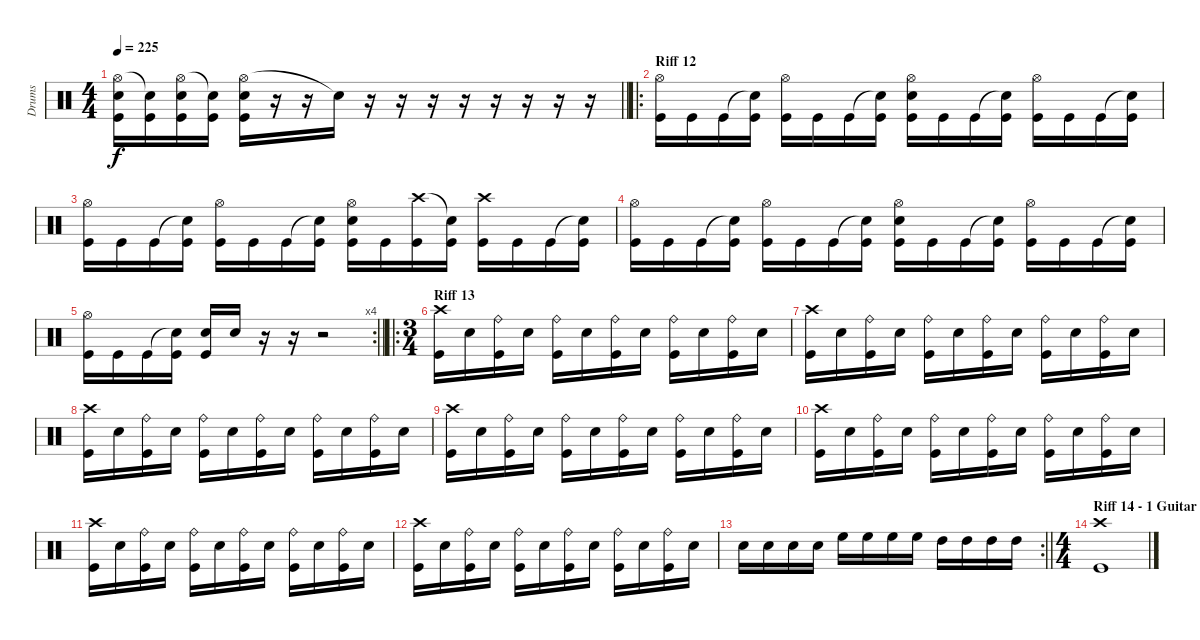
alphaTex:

\track ("Drums" "Drums") {instrument percussion}
\staff {score}
\articulation defaults
\ts (4 4)
\tempo 225
\clef neutral
\barLineRight lightlight
\ks c
("Hi-Hat (open)" "Electric Snare (hit)" "Kick (hit)").16{dy f} ("Snare (hit)"{t} "Kick (hit)").16 ("Hi-Hat (open)" "Electric Snare (hit)" "Kick (hit)").16 ("Snare (hit)"{t} "Kick (hit)").16 ("Hi-Hat (open)" "Electric Snare (hit)" "Kick (hit)").16 r.16 r.16 "Snare (hit)"{t}.16 r.16 r.16 r.16 r.16 r.16 r.16 r.16 r.16 |
\ro
\section ("" "Riff 12")
("Hi-Hat (open)" "Kick (hit)").16 "Kick (hit)".16 "Kick (hit)".16 ("Snare (hit)"{t} "Kick (hit)").16 ("Hi-Hat (open)" "Kick (hit)").16 "Kick (hit)".16 "Kick (hit)".16 ("Snare (hit)"{t} "Kick (hit)").16 ("Hi-Hat (open)" "Electric Snare (hit)" "Kick (hit)").16 "Kick (hit)".16 "Kick (hit)".16 ("Snare (hit)"{t} "Kick (hit)").16 ("Hi-Hat (open)" "Kick (hit)").16 "Kick (hit)".16 "Kick (hit)".16 ("Snare (hit)"{t} "Kick (hit)").16 |
("Hi-Hat (open)" "Kick (hit)").16 "Kick (hit)".16 "Kick (hit)".16 ("Snare (hit)"{t} "Kick (hit)").16 ("Hi-Hat (open)" "Kick (hit)").16 "Kick (hit)".16 "Kick (hit)".16 ("Snare (hit)"{t} "Kick (hit)").16 ("Hi-Hat (open)" "Electric Snare (hit)" "Kick (hit)").16 "Kick (hit)".16 ("Crash high (hit)" "Kick (hit)").16 ("Snare (hit)"{t} "Kick (hit)").16 ("Crash high (hit)" "Kick (hit)").16 "Kick (hit)".16 "Kick (hit)".16 ("Snare (hit)"{t} "Kick (hit)").16 |
("Hi-Hat (open)" "Kick (hit)").16 "Kick (hit)".16 "Kick (hit)".16 ("Snare (hit)"{t} "Kick (hit)").16 ("Hi-Hat (open)" "Kick (hit)").16 "Kick (hit)".16 "Kick (hit)".16 ("Snare (hit)"{t} "Kick (hit)").16 ("Hi-Hat (open)" "Electric Snare (hit)" "Kick (hit)").16 "Kick (hit)".16 "Kick (hit)".16 ("Snare (hit)"{t} "Kick (hit)").16 ("Hi-Hat (open)" "Kick (hit)").16 "Kick (hit)".16 "Kick (hit)".16 ("Snare (hit)"{t} "Kick (hit)").16 |
\rc 4
\barLineRight lightlight
("Hi-Hat (open)" "Kick (hit)").16 "Kick (hit)".16 "Kick (hit)".16 ("Snare (hit)"{t} "Kick (hit)").16 ("Electric Snare (hit)" "Kick (hit)").16 "Electric Snare (hit)".16 r.16 r.16 r.2 |
\ro
\ts (3 4)
\section ("" "Riff 13")
("Crash high (hit)" "Kick (hit)").16 "Electric Snare (hit)".16 ("Ride (bell)" "Kick (hit)").16 "Electric Snare (hit)".16 ("Ride (bell)" "Kick (hit)").16 "Electric Snare (hit)".16 ("Ride (bell)" "Kick (hit)").16 "Electric Snare (hit)".16 ("Ride (bell)" "Kick (hit)").16 "Electric Snare (hit)".16 ("Ride (bell)" "Kick (hit)").16 "Electric Snare (hit)".16 |
("Crash high (hit)" "Kick (hit)").16 "Electric Snare (hit)".16 ("Ride (bell)" "Kick (hit)").16 "Electric Snare (hit)".16 ("Ride (bell)" "Kick (hit)").16 "Electric Snare (hit)".16 ("Ride (bell)" "Kick (hit)").16 "Electric Snare (hit)".16 ("Ride (bell)" "Kick (hit)").16 "Electric Snare (hit)".16 ("Ride (bell)" "Kick (hit)").16 "Electric Snare (hit)".16 |
("Crash high (hit)" "Kick (hit)").16 "Electric Snare (hit)".16 ("Ride (bell)" "Kick (hit)").16 "Electric Snare (hit)".16 ("Ride (bell)" "Kick (hit)").16 "Electric Snare (hit)".16 ("Ride (bell)" "Kick (hit)").16 "Electric Snare (hit)".16 ("Ride (bell)" "Kick (hit)").16 "Electric Snare (hit)".16 ("Ride (bell)" "Kick (hit)").16 "Electric Snare (hit)".16 |
("Crash high (hit)" "Kick (hit)").16 "Electric Snare (hit)".16 ("Ride (bell)" "Kick (hit)").16 "Electric Snare (hit)".16 ("Ride (bell)" "Kick (hit)").16 "Electric Snare (hit)".16 ("Ride (bell)" "Kick (hit)").16 "Electric Snare (hit)".16 ("Ride (bell)" "Kick (hit)").16 "Electric Snare (hit)".16 ("Ride (bell)" "Kick (hit)").16 "Electric Snare (hit)".16 |
("Crash high (hit)" "Kick (hit)").16 "Electric Snare (hit)".16 ("Ride (bell)" "Kick (hit)").16 "Electric Snare (hit)".16 ("Ride (bell)" "Kick (hit)").16 "Electric Snare (hit)".16 ("Ride (bell)" "Kick (hit)").16 "Electric Snare (hit)".16 ("Ride (bell)" "Kick (hit)").16 "Electric Snare (hit)".16 ("Ride (bell)" "Kick (hit)").16 "Electric Snare (hit)".16 |
("Crash high (hit)" "Kick (hit)").16 "Electric Snare (hit)".16 ("Ride (bell)" "Kick (hit)").16 "Electric Snare (hit)".16 ("Ride (bell)" "Kick (hit)").16 "Electric Snare (hit)".16 ("Ride (bell)" "Kick (hit)").16 "Electric Snare (hit)".16 ("Ride (bell)" "Kick (hit)").16 "Electric Snare (hit)".16 ("Ride (bell)" "Kick (hit)").16 "Electric Snare (hit)".16 |
("Crash high (hit)" "Kick (hit)").16 "Electric Snare (hit)".16 ("Ride (bell)" "Kick (hit)").16 "Electric Snare (hit)".16 ("Ride (bell)" "Kick (hit)").16 "Electric Snare (hit)".16 ("Ride (bell)" "Kick (hit)").16 "Electric Snare (hit)".16 ("Ride (bell)" "Kick (hit)").16 "Electric Snare (hit)".16 ("Ride (bell)" "Kick (hit)").16 "Electric Snare (hit)".16 |
\rc 2
\barLineRight lightlight "Electric Snare (hit)".16 "Electric Snare (hit)".16 "Electric Snare (hit)".16 "Electric Snare (hit)".16 "High Floor Tom (hit)".16 "High Floor Tom (hit)".16 "High Floor Tom (hit)".16 "High Floor Tom (hit)".16 "High Tom (hit)".16 "High Tom (hit)".16 "High Tom (hit)".16 "High Tom (hit)".16
|
\ts (4 4)
\section ("" "Riff 14 - 1 Guitar 1 only")
("Crash high (hit)" "Kick (hit)").1
